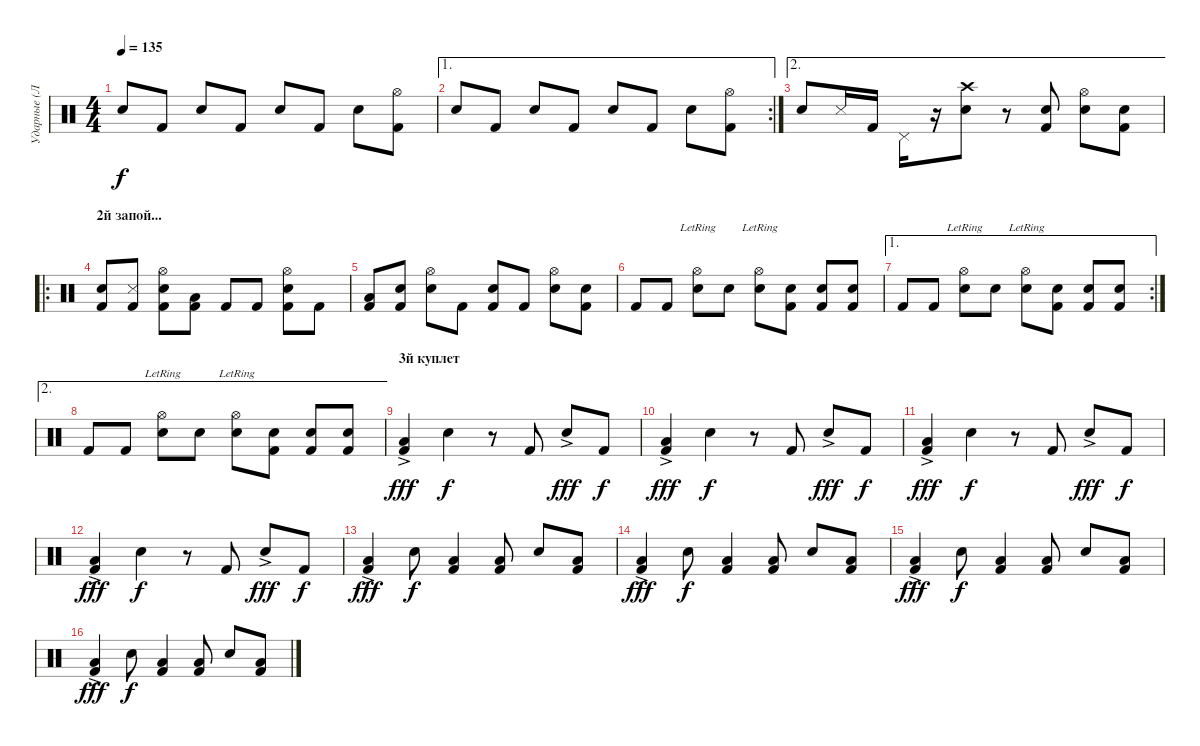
\track ("Ударные (Лысов)" "Ударные (Л") {instrument percussion}
\staff {score}
\articulation defaults
\ts (4 4)
\tempo 135
\clef neutral
\ks c "Snare (hit) 2".8{dy f} "Kick (hit) 2".8 "Snare (hit) 2".8 "Kick (hit) 2".8 "Snare (hit) 2".8 "Kick (hit) 2".8 "Snare (hit) 2".8
("Kick (hit) 2" "Hi-Hat (open)").8 |
\ae 1
\rc 2 "Snare (hit) 2".8 "Kick (hit) 2".8 "Snare (hit) 2".8 "Kick (hit) 2".8 "Snare (hit) 2".8 "Kick (hit) 2".8 "Snare (hit) 2".8
("Kick (hit) 2" "Hi-Hat (open)").8 |
\ae 2 "Snare (hit) 2".8 "Snare (side stick) 3".16 "Kick (hit) 2".16 "Pedal Hi-Hat (hit)".16
r.16 ("Snare (hit) 2" "Crash high (hit)").8 r.8 ("Snare (hit) 2" "Kick (hit) 2").8 ("Hi-Hat (open)" "Snare (hit) 2").8 ("Snare (hit) 2" "Kick (hit) 2").8 |
\ro
\section ("" "2й запой...")
("Kick (hit) 2" "Snare (hit) 2").8 ("Kick (hit) 2" "Snare (side stick) 3").8 ("Kick (hit) 2" "Hi-Hat (open)" "Snare (hit) 2").8 ("Kick (hit) 2" "Low Floor Tom (hit)").8 "Kick (hit) 2".8 "Kick (hit) 2".8 ("Kick (hit) 2" "Hi-Hat (open)" "Snare (hit) 2").8 "Kick (hit) 2".8 |
("Kick (hit) 2" "Low Floor Tom (hit)").8 ("Kick (hit) 2" "Snare (hit) 2").8 ("Hi-Hat (open)" "Snare (hit) 2").8 "Kick (hit) 2".8 ("Kick (hit) 2" "Snare (hit) 2").8 "Kick (hit) 2".8 ("Hi-Hat (open)" "Snare (hit) 2").8 ("Kick (hit) 2" "Snare (hit) 2").8 |
"Kick (hit) 2".8 "Kick (hit) 2".8 ("Hi-Hat (open)"{lr} "Snare (hit) 2").8 "Snare (hit) 2".8 ("Hi-Hat (open)"{lr} "Snare (hit) 2").8 ("Kick (hit) 2" "Snare (hit) 2").8 ("Kick (hit) 2" "Snare (hit) 2").8 ("Kick (hit) 2" "Snare (hit) 2").8 |
\ae 1
\rc 2 "Kick (hit) 2".8 "Kick (hit) 2".8
("Hi-Hat (open)"{lr} "Snare (hit) 2").8 "Snare (hit) 2".8 ("Hi-Hat (open)"{lr} "Snare (hit) 2").8 ("Kick (hit) 2" "Snare (hit) 2").8 ("Kick (hit) 2" "Snare (hit) 2").8 ("Kick (hit) 2" "Snare (hit) 2").8 |
\ae 2 "Kick (hit) 2".8 "Kick (hit) 2".8
("Hi-Hat (open)"{lr} "Snare (hit) 2").8 "Snare (hit) 2".8 ("Hi-Hat (open)"{lr} "Snare (hit) 2").8 ("Kick (hit) 2" "Snare (hit) 2").8 ("Kick (hit) 2" "Snare (hit) 2").8 ("Kick (hit) 2" "Snare (hit) 2").8 |
\section ("" "3й куплет")
("Low Floor Tom (hit)"{ac} "Kick (hit) 2").4{dy fff} "Snare (hit) 2".4{dy f} r.8 "Kick (hit) 2".8 "Snare (hit) 2"{ac}.8{dy fff} "Kick (hit) 2".8{dy f} |
("Low Floor Tom (hit)"{ac} "Kick (hit) 2").4{dy fff} "Snare (hit) 2".4{dy f} r.8 "Kick (hit) 2".8 "Snare (hit) 2"{ac}.8{dy fff} "Kick (hit) 2".8{dy f} |
("Low Floor Tom (hit)"{ac} "Kick (hit) 2").4{dy fff} "Snare (hit) 2".4{dy f} r.8 "Kick (hit) 2".8 "Snare (hit) 2"{ac}.8{dy fff} "Kick (hit) 2".8{dy f} |
("Low Floor Tom (hit)"{ac} "Kick (hit) 2").4{dy fff} "Snare (hit) 2".4{dy f} r.8 "Kick (hit) 2".8 "Snare (hit) 2"{ac}.8{dy fff} "Kick (hit) 2".8{dy f} |
("Low Floor Tom (hit)"{ac} "Kick (hit) 2").4{dy fff} "Snare (hit) 2".8{dy f} ("Low Floor Tom (hit)" "Kick (hit) 2").4 ("Low Floor Tom (hit)" "Kick (hit) 2").8 "Snare (hit) 2".8 ("Low Floor Tom (hit)" "Kick (hit) 2").8 |
("Low Floor Tom (hit)"{ac} "Kick (hit) 2").4{dy fff} "Snare (hit) 2".8{dy f} ("Low Floor Tom (hit)" "Kick (hit) 2").4 ("Low Floor Tom (hit)" "Kick (hit) 2").8 "Snare (hit) 2".8 ("Low Floor Tom (hit)" "Kick (hit) 2").8 |
("Low Floor Tom (hit)"{ac} "Kick (hit) 2").4{dy fff} "Snare (hit) 2".8{dy f} ("Low Floor Tom (hit)" "Kick (hit) 2").4 ("Low Floor Tom (hit)" "Kick (hit) 2").8 "Snare (hit) 2".8 ("Low Floor Tom (hit)" "Kick (hit) 2").8 |
("Low Floor Tom (hit)"{ac} "Kick (hit) 2").4{dy fff} "Snare (hit) 2".8{dy f} ("Low Floor Tom (hit)" "Kick (hit) 2").4 ("Low Floor Tom (hit)" "Kick (hit) 2").8 "Snare (hit) 2".8 ("Low Floor Tom (hit)" "Kick (hit) 2").8
